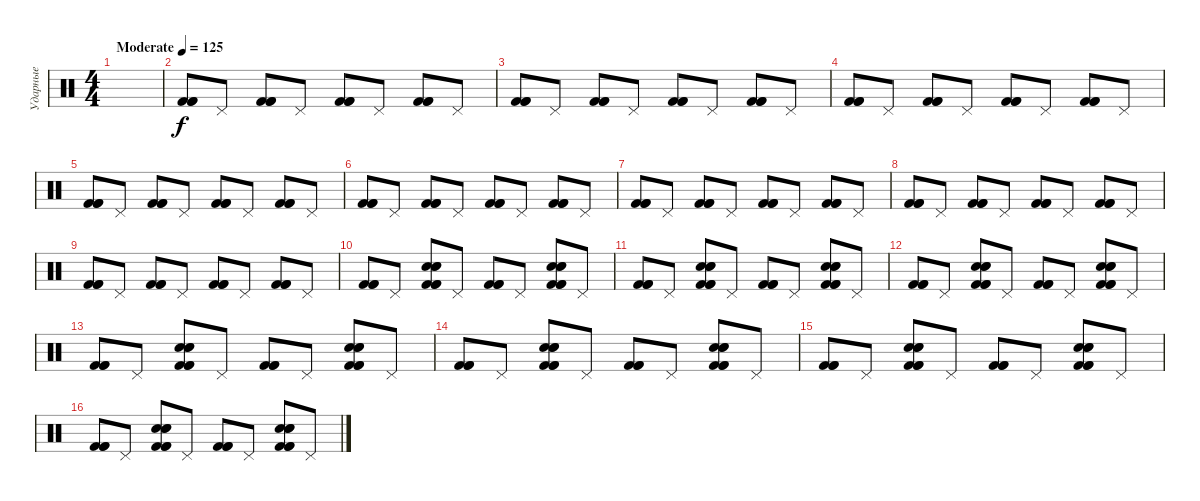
\track ("Ударные" "Ударные") {instrument percussion}
\staff {score}
\articulation defaults
\ts (4 4)
\tempo (125 "Moderate")
\clef neutral
\ks c
|
("Kick (hit) 2" "Kick (hit) 2" "Kick (hit) 2").8 "Pedal Hi-Hat (hit)".8 ("Kick (hit) 2" "Kick (hit) 2" "Kick (hit) 2").8 "Pedal Hi-Hat (hit)".8 ("Kick (hit) 2" "Kick (hit) 2" "Kick (hit) 2").8 "Pedal Hi-Hat (hit)".8 ("Kick (hit) 2" "Kick (hit) 2" "Kick (hit) 2").8 "Pedal Hi-Hat (hit)".8 |
("Kick (hit) 2" "Kick (hit) 2" "Kick (hit) 2").8 "Pedal Hi-Hat (hit)".8 ("Kick (hit) 2" "Kick (hit) 2" "Kick (hit) 2").8 "Pedal Hi-Hat (hit)".8 ("Kick (hit) 2" "Kick (hit) 2" "Kick (hit) 2").8 "Pedal Hi-Hat (hit)".8 ("Kick (hit) 2" "Kick (hit) 2" "Kick (hit) 2").8 "Pedal Hi-Hat (hit)".8 |
("Kick (hit) 2" "Kick (hit) 2" "Kick (hit) 2").8 "Pedal Hi-Hat (hit)".8 ("Kick (hit) 2" "Kick (hit) 2" "Kick (hit) 2").8 "Pedal Hi-Hat (hit)".8 ("Kick (hit) 2" "Kick (hit) 2" "Kick (hit) 2").8 "Pedal Hi-Hat (hit)".8 ("Kick (hit) 2" "Kick (hit) 2" "Kick (hit) 2").8 "Pedal Hi-Hat (hit)".8 |
("Kick (hit) 2" "Kick (hit) 2" "Kick (hit) 2").8 "Pedal Hi-Hat (hit)".8 ("Kick (hit) 2" "Kick (hit) 2" "Kick (hit) 2").8 "Pedal Hi-Hat (hit)".8 ("Kick (hit) 2" "Kick (hit) 2" "Kick (hit) 2").8 "Pedal Hi-Hat (hit)".8 ("Kick (hit) 2" "Kick (hit) 2" "Kick (hit) 2").8 "Pedal Hi-Hat (hit)".8 |
("Kick (hit) 2" "Kick (hit) 2" "Kick (hit) 2").8 "Pedal Hi-Hat (hit)".8 ("Kick (hit) 2" "Kick (hit) 2" "Kick (hit) 2").8 "Pedal Hi-Hat (hit)".8 ("Kick (hit) 2" "Kick (hit) 2" "Kick (hit) 2").8 "Pedal Hi-Hat (hit)".8 ("Kick (hit) 2" "Kick (hit) 2" "Kick (hit) 2").8 "Pedal Hi-Hat (hit)".8 |
("Kick (hit) 2" "Kick (hit) 2" "Kick (hit) 2").8 "Pedal Hi-Hat (hit)".8 ("Kick (hit) 2" "Kick (hit) 2" "Kick (hit) 2").8 "Pedal Hi-Hat (hit)".8 ("Kick (hit) 2" "Kick (hit) 2" "Kick (hit) 2").8 "Pedal Hi-Hat (hit)".8 ("Kick (hit) 2" "Kick (hit) 2" "Kick (hit) 2").8 "Pedal Hi-Hat (hit)".8 |
("Kick (hit) 2" "Kick (hit) 2" "Kick (hit) 2").8 "Pedal Hi-Hat (hit)".8 ("Kick (hit) 2" "Kick (hit) 2" "Kick (hit) 2").8 "Pedal Hi-Hat (hit)".8 ("Kick (hit) 2" "Kick (hit) 2" "Kick (hit) 2").8 "Pedal Hi-Hat (hit)".8 ("Kick (hit) 2" "Kick (hit) 2" "Kick (hit) 2").8 "Pedal Hi-Hat (hit)".8 |
("Kick (hit) 2" "Kick (hit) 2" "Kick (hit) 2").8 "Pedal Hi-Hat (hit)".8 ("Kick (hit) 2" "Kick (hit) 2" "Kick (hit) 2").8 "Pedal Hi-Hat (hit)".8 ("Kick (hit) 2" "Kick (hit) 2" "Kick (hit) 2").8 "Pedal Hi-Hat (hit)".8 ("Kick (hit) 2" "Kick (hit) 2" "Kick (hit) 2").8 "Pedal Hi-Hat (hit)".8 |
("Kick (hit) 2" "Kick (hit) 2" "Kick (hit) 2").8 "Pedal Hi-Hat (hit)".8 ("Snare (hit) 2" "Kick (hit) 2" "Snare (hit) 2" "Kick (hit) 2" "Snare (hit) 2" "Kick (hit) 2").8 "Pedal Hi-Hat (hit)".8 ("Kick (hit) 2" "Kick (hit) 2" "Kick (hit) 2").8 "Pedal Hi-Hat (hit)".8 ("Snare (hit) 2" "Kick (hit) 2" "Snare (hit) 2" "Kick (hit) 2" "Snare (hit) 2" "Kick (hit) 2").8 "Pedal Hi-Hat (hit)".8 |
("Kick (hit) 2" "Kick (hit) 2" "Kick (hit) 2").8 "Pedal Hi-Hat (hit)".8 ("Snare (hit) 2" "Kick (hit) 2" "Snare (hit) 2" "Kick (hit) 2" "Snare (hit) 2" "Kick (hit) 2").8 "Pedal Hi-Hat (hit)".8 ("Kick (hit) 2" "Kick (hit) 2" "Kick (hit) 2").8 "Pedal Hi-Hat (hit)".8 ("Snare (hit) 2" "Kick (hit) 2" "Snare (hit) 2" "Kick (hit) 2" "Snare (hit) 2" "Kick (hit) 2").8 "Pedal Hi-Hat (hit)".8 |
("Kick (hit) 2" "Kick (hit) 2" "Kick (hit) 2").8 "Pedal Hi-Hat (hit)".8 ("Snare (hit) 2" "Kick (hit) 2" "Snare (hit) 2" "Kick (hit) 2" "Snare (hit) 2" "Kick (hit) 2").8 "Pedal Hi-Hat (hit)".8 ("Kick (hit) 2" "Kick (hit) 2" "Kick (hit) 2").8 "Pedal Hi-Hat (hit)".8 ("Snare (hit) 2" "Kick (hit) 2" "Snare (hit) 2" "Kick (hit) 2" "Snare (hit) 2" "Kick (hit) 2").8 "Pedal Hi-Hat (hit)".8 |
("Kick (hit) 2" "Kick (hit) 2" "Kick (hit) 2").8 "Pedal Hi-Hat (hit)".8 ("Snare (hit) 2" "Kick (hit) 2" "Snare (hit) 2" "Kick (hit) 2" "Snare (hit) 2" "Kick (hit) 2").8 "Pedal Hi-Hat (hit)".8 ("Kick (hit) 2" "Kick (hit) 2" "Kick (hit) 2").8 "Pedal Hi-Hat (hit)".8 ("Snare (hit) 2" "Kick (hit) 2" "Snare (hit) 2" "Kick (hit) 2" "Snare (hit) 2" "Kick (hit) 2").8 "Pedal Hi-Hat (hit)".8 |
("Kick (hit) 2" "Kick (hit) 2" "Kick (hit) 2").8 "Pedal Hi-Hat (hit)".8 ("Snare (hit) 2" "Kick (hit) 2" "Snare (hit) 2" "Kick (hit) 2" "Snare (hit) 2" "Kick (hit) 2").8 "Pedal Hi-Hat (hit)".8 ("Kick (hit) 2" "Kick (hit) 2" "Kick (hit) 2").8 "Pedal Hi-Hat (hit)".8 ("Snare (hit) 2" "Kick (hit) 2" "Snare (hit) 2" "Kick (hit) 2" "Snare (hit) 2" "Kick (hit) 2").8 "Pedal Hi-Hat (hit)".8 |
("Kick (hit) 2" "Kick (hit) 2" "Kick (hit) 2").8 "Pedal Hi-Hat (hit)".8 ("Snare (hit) 2" "Kick (hit) 2" "Snare (hit) 2" "Kick (hit) 2" "Snare (hit) 2" "Kick (hit) 2").8 "Pedal Hi-Hat (hit)".8 ("Kick (hit) 2" "Kick (hit) 2" "Kick (hit) 2").8 "Pedal Hi-Hat (hit)".8 ("Snare (hit) 2" "Kick (hit) 2" "Snare (hit) 2" "Kick (hit) 2" "Snare (hit) 2" "Kick (hit) 2").8 "Pedal Hi-Hat (hit)".8 |
("Kick (hit) 2" "Kick (hit) 2" "Kick (hit) 2").8 "Pedal Hi-Hat (hit)".8 ("Snare (hit) 2" "Kick (hit) 2" "Snare (hit) 2" "Kick (hit) 2" "Snare (hit) 2" "Kick (hit) 2").8 "Pedal Hi-Hat (hit)".8 ("Kick (hit) 2" "Kick (hit) 2" "Kick (hit) 2").8 "Pedal Hi-Hat (hit)".8 ("Snare (hit) 2" "Kick (hit) 2" "Snare (hit) 2" "Kick (hit) 2" "Snare (hit) 2" "Kick (hit) 2").8 "Pedal Hi-Hat (hit)".8
